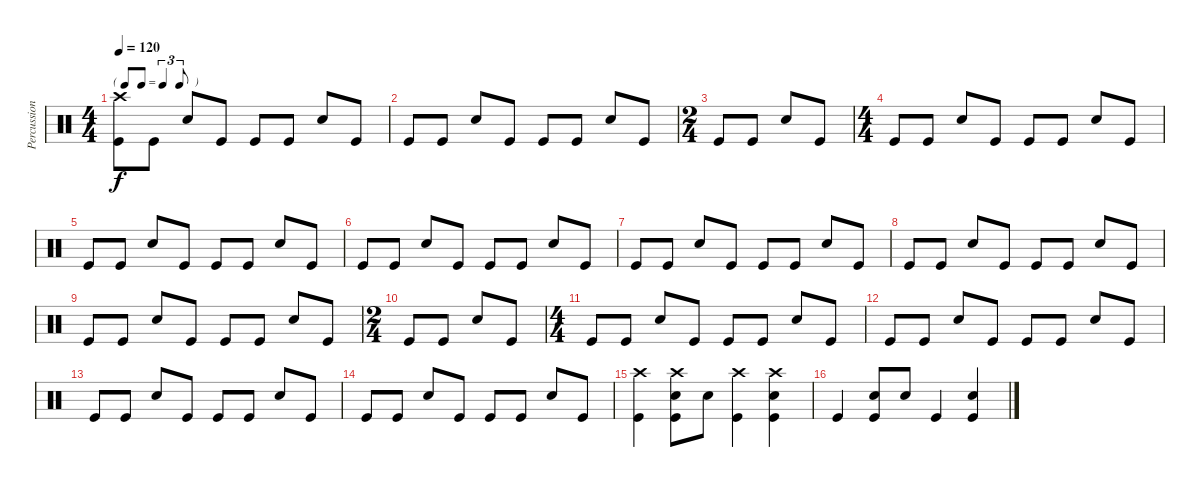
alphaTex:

\track ("Percussion" "Percussion") {instrument percussion}
\staff {score}
\articulation defaults
\ts (4 4)
\tf triplet8th
\tempo 120
\clef neutral
\ks c
("Crash high (hit)" "Kick (hit)").8{dy f} "Kick (hit)".8 "Snare (hit) 2".8 "Kick (hit)".8 "Kick (hit)".8 "Kick (hit)".8 "Snare (hit) 2".8 "Kick (hit)".8 |
"Kick (hit)".8 "Kick (hit)".8 "Snare (hit) 2".8 "Kick (hit)".8 "Kick (hit)".8 "Kick (hit)".8 "Snare (hit) 2".8 "Kick (hit)".8 |
\ts (2 4)
"Kick (hit)".8 "Kick (hit)".8 "Snare (hit) 2".8 "Kick (hit)".8 |
\ts (4 4)
"Kick (hit)".8 "Kick (hit)".8 "Snare (hit) 2".8 "Kick (hit)".8 "Kick (hit)".8 "Kick (hit)".8 "Snare (hit) 2".8 "Kick (hit)".8 |
"Kick (hit)".8 "Kick (hit)".8 "Snare (hit) 2".8 "Kick (hit)".8 "Kick (hit)".8 "Kick (hit)".8 "Snare (hit) 2".8 "Kick (hit)".8 |
"Kick (hit)".8 "Kick (hit)".8 "Snare (hit) 2".8 "Kick (hit)".8 "Kick (hit)".8 "Kick (hit)".8 "Snare (hit) 2".8 "Kick (hit)".8 |
"Kick (hit)".8 "Kick (hit)".8 "Snare (hit) 2".8 "Kick (hit)".8 "Kick (hit)".8 "Kick (hit)".8 "Snare (hit) 2".8 "Kick (hit)".8 |
"Kick (hit)".8 "Kick (hit)".8 "Snare (hit) 2".8 "Kick (hit)".8 "Kick (hit)".8 "Kick (hit)".8 "Snare (hit) 2".8 "Kick (hit)".8 |
"Kick (hit)".8 "Kick (hit)".8 "Snare (hit) 2".8 "Kick (hit)".8 "Kick (hit)".8 "Kick (hit)".8 "Snare (hit) 2".8 "Kick (hit)".8 |
\ts (2 4)
"Kick (hit)".8 "Kick (hit)".8 "Snare (hit) 2".8 "Kick (hit)".8 |
\ts (4 4)
"Kick (hit)".8 "Kick (hit)".8 "Snare (hit) 2".8 "Kick (hit)".8 "Kick (hit)".8 "Kick (hit)".8 "Snare (hit) 2".8 "Kick (hit)".8 |
"Kick (hit)".8 "Kick (hit)".8 "Snare (hit) 2".8 "Kick (hit)".8 "Kick (hit)".8 "Kick (hit)".8 "Snare (hit) 2".8 "Kick (hit)".8 |
"Kick (hit)".8 "Kick (hit)".8 "Snare (hit) 2".8 "Kick (hit)".8 "Kick (hit)".8 "Kick (hit)".8 "Snare (hit) 2".8 "Kick (hit)".8 |
"Kick (hit)".8 "Kick (hit)".8 "Snare (hit) 2".8 "Kick (hit)".8 "Kick (hit)".8 "Kick (hit)".8 "Snare (hit) 2".8 "Kick (hit)".8 |
("Crash high (hit)" "Kick (hit)").4 ("Crash high (hit)" "Snare (hit) 2" "Kick (hit)").8 "Snare (hit) 2".8 ("Crash high (hit)" "Kick (hit)").4 ("Crash high (hit)" "Snare (hit) 2" "Kick (hit)").4 |
"Kick (hit)".4 ("Snare (hit) 2" "Kick (hit)").8 "Snare (hit) 2".8 "Kick (hit)".4 ("Snare (hit) 2" "Kick (hit)").4
